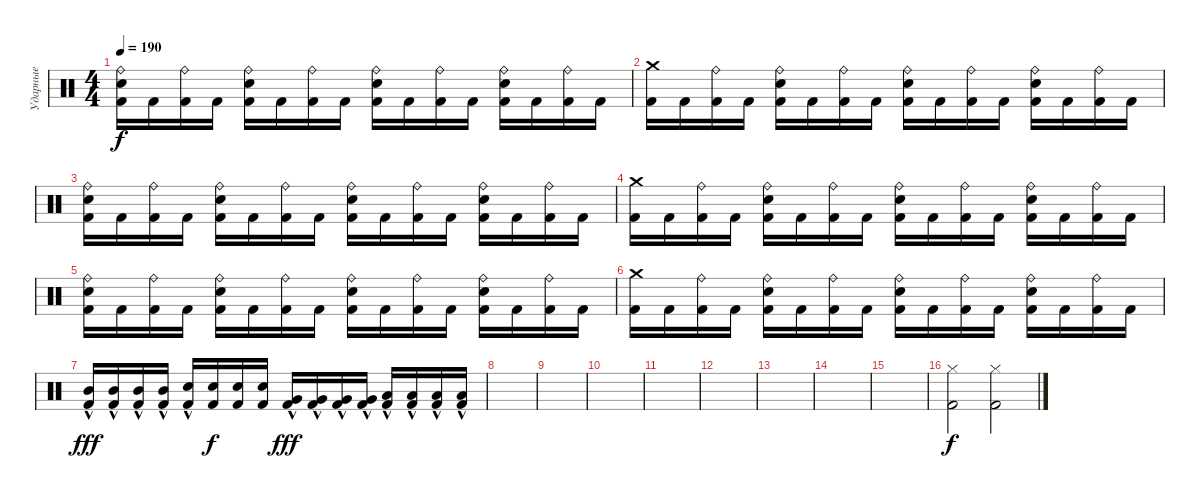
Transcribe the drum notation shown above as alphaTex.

\track ("Ударные" "Ударные") {instrument percussion}
\staff {score}
\articulation defaults
\ts (4 4)
\tempo 190
\clef neutral
\ks c
("Ride (bell)" "Electric Snare (hit)" "Kick (hit) 2").16{dy f} "Kick (hit) 2".16 ("Ride (bell)" "Kick (hit) 2").16 "Kick (hit) 2".16 ("Ride (bell)" "Electric Snare (hit)" "Kick (hit) 2").16 "Kick (hit) 2".16 ("Ride (bell)" "Kick (hit) 2").16 "Kick (hit) 2".16 ("Ride (bell)" "Electric Snare (hit)" "Kick (hit) 2").16 "Kick (hit) 2".16 ("Ride (bell)" "Kick (hit) 2").16 "Kick (hit) 2".16 ("Ride (bell)" "Electric Snare (hit)" "Kick (hit) 2").16 "Kick (hit) 2".16 ("Ride (bell)" "Kick (hit) 2").16 "Kick (hit) 2".16 |
("Crash medium (hit)" "Kick (hit) 2").16 "Kick (hit) 2".16 ("Ride (bell)" "Kick (hit) 2").16 "Kick (hit) 2".16 ("Ride (bell)" "Electric Snare (hit)" "Kick (hit) 2").16 "Kick (hit) 2".16 ("Ride (bell)" "Kick (hit) 2").16 "Kick (hit) 2".16 ("Ride (bell)" "Electric Snare (hit)" "Kick (hit) 2").16 "Kick (hit) 2".16 ("Ride (bell)" "Kick (hit) 2").16 "Kick (hit) 2".16 ("Ride (bell)" "Electric Snare (hit)" "Kick (hit) 2").16 "Kick (hit) 2".16 ("Ride (bell)" "Kick (hit) 2").16 "Kick (hit) 2".16 |
("Ride (bell)" "Electric Snare (hit)" "Kick (hit) 2").16 "Kick (hit) 2".16 ("Ride (bell)" "Kick (hit) 2").16 "Kick (hit) 2".16 ("Ride (bell)" "Electric Snare (hit)" "Kick (hit) 2").16 "Kick (hit) 2".16 ("Ride (bell)" "Kick (hit) 2").16 "Kick (hit) 2".16 ("Ride (bell)" "Electric Snare (hit)" "Kick (hit) 2").16 "Kick (hit) 2".16 ("Ride (bell)" "Kick (hit) 2").16 "Kick (hit) 2".16 ("Ride (bell)" "Electric Snare (hit)" "Kick (hit) 2").16 "Kick (hit) 2".16 ("Ride (bell)" "Kick (hit) 2").16 "Kick (hit) 2".16 |
("Crash medium (hit)" "Kick (hit) 2").16 "Kick (hit) 2".16 ("Ride (bell)" "Kick (hit) 2").16 "Kick (hit) 2".16 ("Ride (bell)" "Electric Snare (hit)" "Kick (hit) 2").16 "Kick (hit) 2".16 ("Ride (bell)" "Kick (hit) 2").16 "Kick (hit) 2".16 ("Ride (bell)" "Electric Snare (hit)" "Kick (hit) 2").16 "Kick (hit) 2".16 ("Ride (bell)" "Kick (hit) 2").16 "Kick (hit) 2".16 ("Ride (bell)" "Electric Snare (hit)" "Kick (hit) 2").16 "Kick (hit) 2".16 ("Ride (bell)" "Kick (hit) 2").16 "Kick (hit) 2".16 |
("Ride (bell)" "Electric Snare (hit)" "Kick (hit) 2").16 "Kick (hit) 2".16 ("Ride (bell)" "Kick (hit) 2").16 "Kick (hit) 2".16 ("Ride (bell)" "Electric Snare (hit)" "Kick (hit) 2").16 "Kick (hit) 2".16 ("Ride (bell)" "Kick (hit) 2").16 "Kick (hit) 2".16 ("Ride (bell)" "Electric Snare (hit)" "Kick (hit) 2").16 "Kick (hit) 2".16 ("Ride (bell)" "Kick (hit) 2").16 "Kick (hit) 2".16 ("Ride (bell)" "Electric Snare (hit)" "Kick (hit) 2").16 "Kick (hit) 2".16 ("Ride (bell)" "Kick (hit) 2").16 "Kick (hit) 2".16 |
("Crash medium (hit)" "Kick (hit) 2").16 "Kick (hit) 2".16 ("Ride (bell)" "Kick (hit) 2").16 "Kick (hit) 2".16 ("Ride (bell)" "Electric Snare (hit)" "Kick (hit) 2").16 "Kick (hit) 2".16 ("Ride (bell)" "Kick (hit) 2").16 "Kick (hit) 2".16 ("Ride (bell)" "Electric Snare (hit)" "Kick (hit) 2").16 "Kick (hit) 2".16 ("Ride (bell)" "Kick (hit) 2").16 "Kick (hit) 2".16 ("Ride (bell)" "Electric Snare (hit)" "Kick (hit) 2").16 "Kick (hit) 2".16 ("Ride (bell)" "Kick (hit) 2").16 "Kick (hit) 2".16 |
("Mid Tom (hit)" "Kick (hit) 2"{hac}).16{dy fff} ("Mid Tom (hit)"{hac} "Kick (hit) 2").16 ("Mid Tom (hit)"{hac} "Kick (hit) 2").16 ("Mid Tom (hit)"{hac} "Kick (hit) 2").16 ("Electric Snare (hit)" "Kick (hit) 2"{hac}).16 ("Electric Snare (hit)" "Kick (hit) 2").16{dy f} ("Electric Snare (hit)" "Kick (hit) 2").16 ("Electric Snare (hit)" "Kick (hit) 2").16 ("Very Low Tom (hit)"{hac} "Kick (hit) 2"{hac}).16{dy fff} ("Very Low Tom (hit)"{hac} "Kick (hit) 2").16 ("Very Low Tom (hit)"{hac} "Kick (hit) 2").16 ("Very Low Tom (hit)"{hac} "Kick (hit) 2").16 ("Low Tom (hit)"{hac} "Kick (hit) 2"{hac}).16 ("Low Tom (hit)"{hac} "Kick (hit) 2").16 ("Low Tom (hit)"{hac} "Kick (hit) 2").16 ("Low Tom (hit)"{hac} "Kick (hit) 2").16 |
|
|
|
|
|
|
|
|
("Hi-Hat (closed)" "Kick (hit) 2").2{dy f} ("Hi-Hat (closed)" "Kick (hit) 2").2
